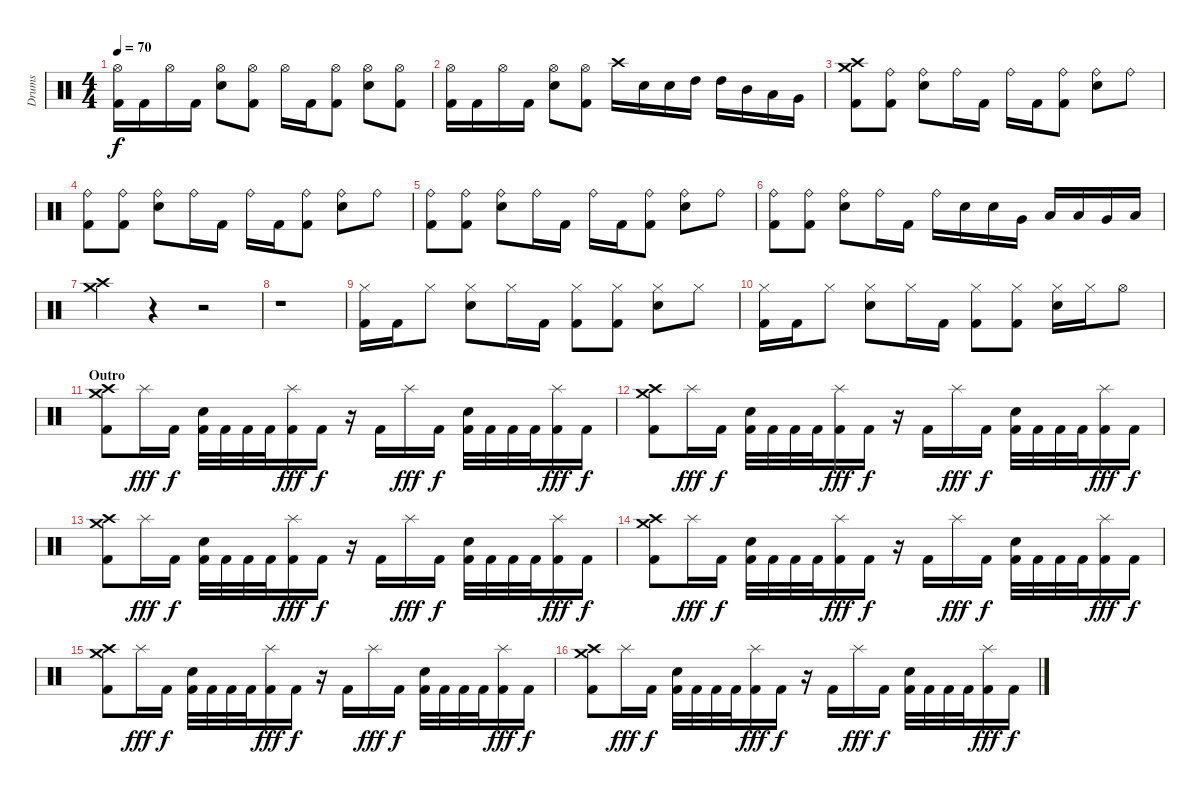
\track ("Drums" "Drums") {instrument percussion}
\staff {score}
\articulation defaults
\ts (4 4)
\tempo 70
\clef neutral
\ks c
("Hi-Hat (open)" "Kick (hit) 2").16{dy f} "Kick (hit) 2".16 "Hi-Hat (open)".16 "Kick (hit) 2".16 ("Hi-Hat (open)" "Electric Snare (hit)").8 ("Hi-Hat (open)" "Kick (hit) 2").8 "Hi-Hat (open)".16 "Kick (hit) 2".16 ("Hi-Hat (open)" "Kick (hit) 2").8 ("Hi-Hat (open)" "Electric Snare (hit)").8 ("Hi-Hat (open)" "Kick (hit) 2").8 |
("Hi-Hat (open)" "Kick (hit) 2").16 "Kick (hit) 2".16 "Hi-Hat (open)".16 "Kick (hit) 2".16 ("Hi-Hat (open)" "Electric Snare (hit)").8 ("Hi-Hat (open)" "Kick (hit) 2").8 "Crash high (hit)".16 "Electric Snare (hit)".16 "Electric Snare (hit)".16 "High Tom (hit)".16 "High Tom (hit)".16 "Mid Tom (hit)".16 "Low Tom (hit)".16 "Very Low Tom (hit)".16 |
("Crash high (hit)" "Crash medium (hit)" "Kick (hit) 2").8 ("Ride (bell)" "Kick (hit) 2").8 ("Ride (bell)" "Electric Snare (hit)").8 "Ride (bell)".16 "Kick (hit) 2".16 "Ride (bell)".16 "Kick (hit) 2".16 ("Ride (bell)" "Kick (hit) 2").8 ("Ride (bell)" "Electric Snare (hit)").8 "Ride (bell)".8 |
("Ride (bell)" "Kick (hit) 2").8 ("Ride (bell)" "Kick (hit) 2").8 ("Ride (bell)" "Electric Snare (hit)").8 "Ride (bell)".16 "Kick (hit) 2".16 "Ride (bell)".16 "Kick (hit) 2".16 ("Ride (bell)" "Kick (hit) 2").8 ("Ride (bell)" "Electric Snare (hit)").8 "Ride (bell)".8 |
("Ride (bell)" "Kick (hit) 2").8 ("Ride (bell)" "Kick (hit) 2").8 ("Ride (bell)" "Electric Snare (hit)").8 "Ride (bell)".16 "Kick (hit) 2".16 "Ride (bell)".16 "Kick (hit) 2".16 ("Ride (bell)" "Kick (hit) 2").8 ("Ride (bell)" "Electric Snare (hit)").8 "Ride (bell)".8 |
("Ride (bell)" "Kick (hit) 2").8 ("Ride (bell)" "Kick (hit) 2").8 ("Ride (bell)" "Electric Snare (hit)").8 "Ride (bell)".16 "Kick (hit) 2".16 "Ride (bell)".16 "Electric Snare (hit)".16 "Electric Snare (hit)".16 "Very Low Tom (hit)".16 "Low Tom (hit)".16 "Low Tom (hit)".16 "Very Low Tom (hit)".16 "Low Floor Tom (hit)".16 |
("Crash high (hit)" "Crash medium (hit)").4 r.4 r.2 |
r.1 |
("Hi-Hat (closed)" "Kick (hit) 2").16 "Kick (hit) 2".16 "Hi-Hat (closed)".8 ("Hi-Hat (closed)" "Electric Snare (hit)").8 "Hi-Hat (closed)".16 "Kick (hit) 2".16 ("Hi-Hat (closed)" "Kick (hit) 2").8 ("Hi-Hat (closed)" "Kick (hit) 2").8 ("Hi-Hat (closed)" "Electric Snare (hit)").8 "Hi-Hat (closed)".8 |
("Hi-Hat (closed)" "Kick (hit) 2").16 "Kick (hit) 2".16 "Hi-Hat (closed)".8 ("Hi-Hat (closed)" "Electric Snare (hit)").8 "Hi-Hat (closed)".16 "Kick (hit) 2".16 ("Hi-Hat (closed)" "Kick (hit) 2").8 ("Hi-Hat (closed)" "Kick (hit) 2").8 ("Hi-Hat (closed)" "Electric Snare (hit)").16 "Hi-Hat (closed)".16 "Hi-Hat (open)".8 |
\section ("" "Outro")
("Crash high (hit)" "Crash medium (hit)" "Kick (hit) 2").8 "Splash (hit)".16{dy fff} "Kick (hit) 2".16{dy f} ("Electric Snare (hit)" "Kick (hit) 2").32 "Kick (hit) 2".32 "Kick (hit) 2".32 "Kick (hit) 2".32 ("Splash (hit)" "Kick (hit) 2").16{dy fff} "Kick (hit) 2".16{dy f} r.16 "Kick (hit) 2".16 "Splash (hit)".16{dy fff} "Kick (hit) 2".16{dy f} ("Electric Snare (hit)" "Kick (hit) 2").32 "Kick (hit) 2".32 "Kick (hit) 2".32 "Kick (hit) 2".32 ("Splash (hit)" "Kick (hit) 2").16{dy fff} "Kick (hit) 2".16{dy f} |
("Crash high (hit)" "Crash medium (hit)" "Kick (hit) 2").8 "Splash (hit)".16{dy fff} "Kick (hit) 2".16{dy f} ("Electric Snare (hit)" "Kick (hit) 2").32 "Kick (hit) 2".32 "Kick (hit) 2".32 "Kick (hit) 2".32 ("Splash (hit)" "Kick (hit) 2").16{dy fff} "Kick (hit) 2".16{dy f} r.16 "Kick (hit) 2".16 "Splash (hit)".16{dy fff} "Kick (hit) 2".16{dy f} ("Electric Snare (hit)" "Kick (hit) 2").32 "Kick (hit) 2".32 "Kick (hit) 2".32 "Kick (hit) 2".32 ("Splash (hit)" "Kick (hit) 2").16{dy fff} "Kick (hit) 2".16{dy f} |
("Crash high (hit)" "Crash medium (hit)" "Kick (hit) 2").8 "Splash (hit)".16{dy fff} "Kick (hit) 2".16{dy f} ("Electric Snare (hit)" "Kick (hit) 2").32 "Kick (hit) 2".32 "Kick (hit) 2".32 "Kick (hit) 2".32 ("Splash (hit)" "Kick (hit) 2").16{dy fff} "Kick (hit) 2".16{dy f} r.16 "Kick (hit) 2".16 "Splash (hit)".16{dy fff} "Kick (hit) 2".16{dy f} ("Electric Snare (hit)" "Kick (hit) 2").32 "Kick (hit) 2".32 "Kick (hit) 2".32 "Kick (hit) 2".32 ("Splash (hit)" "Kick (hit) 2").16{dy fff} "Kick (hit) 2".16{dy f} |
("Crash high (hit)" "Crash medium (hit)" "Kick (hit) 2").8 "Splash (hit)".16{dy fff} "Kick (hit) 2".16{dy f} ("Electric Snare (hit)" "Kick (hit) 2").32 "Kick (hit) 2".32 "Kick (hit) 2".32 "Kick (hit) 2".32 ("Splash (hit)" "Kick (hit) 2").16{dy fff} "Kick (hit) 2".16{dy f} r.16 "Kick (hit) 2".16 "Splash (hit)".16{dy fff} "Kick (hit) 2".16{dy f} ("Electric Snare (hit)" "Kick (hit) 2").32 "Kick (hit) 2".32 "Kick (hit) 2".32 "Kick (hit) 2".32 ("Splash (hit)" "Kick (hit) 2").16{dy fff} "Kick (hit) 2".16{dy f} |
("Crash high (hit)" "Crash medium (hit)" "Kick (hit) 2").8 "Splash (hit)".16{dy fff} "Kick (hit) 2".16{dy f} ("Electric Snare (hit)" "Kick (hit) 2").32 "Kick (hit) 2".32 "Kick (hit) 2".32 "Kick (hit) 2".32 ("Splash (hit)" "Kick (hit) 2").16{dy fff} "Kick (hit) 2".16{dy f} r.16 "Kick (hit) 2".16 "Splash (hit)".16{dy fff} "Kick (hit) 2".16{dy f} ("Electric Snare (hit)" "Kick (hit) 2").32 "Kick (hit) 2".32 "Kick (hit) 2".32 "Kick (hit) 2".32 ("Splash (hit)" "Kick (hit) 2").16{dy fff} "Kick (hit) 2".16{dy f} |
("Crash high (hit)" "Crash medium (hit)" "Kick (hit) 2").8 "Splash (hit)".16{dy fff} "Kick (hit) 2".16{dy f} ("Electric Snare (hit)" "Kick (hit) 2").32 "Kick (hit) 2".32 "Kick (hit) 2".32 "Kick (hit) 2".32 ("Splash (hit)" "Kick (hit) 2").16{dy fff} "Kick (hit) 2".16{dy f} r.16 "Kick (hit) 2".16 "Splash (hit)".16{dy fff} "Kick (hit) 2".16{dy f} ("Electric Snare (hit)" "Kick (hit) 2").32 "Kick (hit) 2".32 "Kick (hit) 2".32 "Kick (hit) 2".32 ("Splash (hit)" "Kick (hit) 2").16{dy fff} "Kick (hit) 2".16{dy f}
